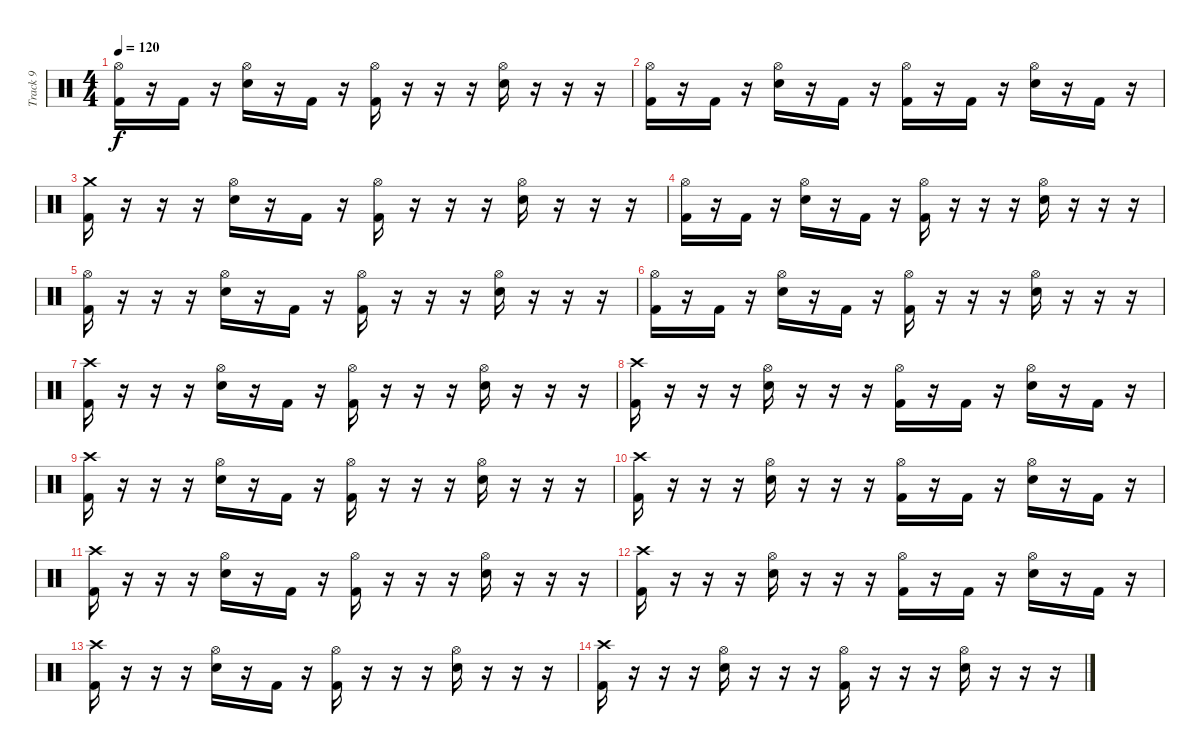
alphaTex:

\track ("Track 9" "Track 9") {instrument percussion}
\staff {score}
\articulation defaults
\ts (4 4)
\tempo 120
\clef neutral
\ks c
("Hi-Hat (open)" "Kick (hit) 2").16{dy f} r.16 "Kick (hit) 2".16 r.16 ("Hi-Hat (open)" "Electric Snare (hit)").16 r.16 "Kick (hit) 2".16 r.16 ("Hi-Hat (open)" "Kick (hit) 2").16 r.16 r.16 r.16 ("Hi-Hat (open)" "Electric Snare (hit)").16 r.16 r.16 r.16 |
("Hi-Hat (open)" "Kick (hit) 2").16 r.16 "Kick (hit) 2".16 r.16 ("Hi-Hat (open)" "Electric Snare (hit)").16 r.16 "Kick (hit) 2".16 r.16 ("Hi-Hat (open)" "Kick (hit) 2").16 r.16 "Kick (hit) 2".16 r.16 ("Hi-Hat (open)" "Electric Snare (hit)").16 r.16 "Kick (hit) 2".16 r.16 |
("Crash medium (hit)" "Kick (hit) 2").16 r.16 r.16 r.16 ("Hi-Hat (open)" "Electric Snare (hit)").16 r.16 "Kick (hit) 2".16 r.16 ("Hi-Hat (open)" "Kick (hit) 2").16 r.16 r.16 r.16 ("Hi-Hat (open)" "Electric Snare (hit)").16 r.16 r.16 r.16 |
("Hi-Hat (open)" "Kick (hit) 2").16 r.16 "Kick (hit) 2".16 r.16 ("Hi-Hat (open)" "Electric Snare (hit)").16 r.16 "Kick (hit) 2".16 r.16 ("Hi-Hat (open)" "Kick (hit) 2").16 r.16 r.16 r.16 ("Hi-Hat (open)" "Electric Snare (hit)").16 r.16 r.16 r.16 |
("Hi-Hat (open)" "Kick (hit) 2").16 r.16 r.16 r.16 ("Hi-Hat (open)" "Electric Snare (hit)").16 r.16 "Kick (hit) 2".16 r.16 ("Hi-Hat (open)" "Kick (hit) 2").16 r.16 r.16 r.16 ("Hi-Hat (open)" "Electric Snare (hit)").16 r.16 r.16 r.16 |
("Hi-Hat (open)" "Kick (hit) 2").16 r.16 "Kick (hit) 2".16 r.16 ("Hi-Hat (open)" "Electric Snare (hit)").16 r.16 "Kick (hit) 2".16 r.16 ("Hi-Hat (open)" "Kick (hit) 2").16 r.16 r.16 r.16 ("Hi-Hat (open)" "Electric Snare (hit)").16 r.16 r.16 r.16 |
("Crash high (hit)" "Kick (hit) 2").16 r.16 r.16 r.16 ("Hi-Hat (open)" "Electric Snare (hit)").16 r.16 "Kick (hit) 2".16 r.16 ("Hi-Hat (open)" "Kick (hit) 2").16 r.16 r.16 r.16 ("Hi-Hat (open)" "Electric Snare (hit)").16 r.16 r.16 r.16 |
("Crash high (hit)" "Kick (hit) 2").16 r.16 r.16 r.16 ("Hi-Hat (open)" "Electric Snare (hit)").16 r.16 r.16 r.16 ("Hi-Hat (open)" "Kick (hit) 2").16 r.16 "Kick (hit) 2".16 r.16 ("Hi-Hat (open)" "Electric Snare (hit)").16 r.16 "Kick (hit) 2".16 r.16 |
("Crash high (hit)" "Kick (hit) 2").16 r.16 r.16 r.16 ("Hi-Hat (open)" "Electric Snare (hit)").16 r.16 "Kick (hit) 2".16 r.16 ("Hi-Hat (open)" "Kick (hit) 2").16 r.16 r.16 r.16 ("Hi-Hat (open)" "Electric Snare (hit)").16 r.16 r.16 r.16 |
("Crash high (hit)" "Kick (hit) 2").16 r.16 r.16 r.16 ("Hi-Hat (open)" "Electric Snare (hit)").16 r.16 r.16 r.16 ("Hi-Hat (open)" "Kick (hit) 2").16 r.16 "Kick (hit) 2".16 r.16 ("Hi-Hat (open)" "Electric Snare (hit)").16 r.16 "Kick (hit) 2".16 r.16 |
("Crash high (hit)" "Kick (hit) 2").16 r.16 r.16 r.16 ("Hi-Hat (open)" "Electric Snare (hit)").16 r.16 "Kick (hit) 2".16 r.16 ("Hi-Hat (open)" "Kick (hit) 2").16 r.16 r.16 r.16 ("Hi-Hat (open)" "Electric Snare (hit)").16 r.16 r.16 r.16 |
("Crash high (hit)" "Kick (hit) 2").16 r.16 r.16 r.16 ("Hi-Hat (open)" "Electric Snare (hit)").16 r.16 r.16 r.16 ("Hi-Hat (open)" "Kick (hit) 2").16 r.16 "Kick (hit) 2".16 r.16 ("Hi-Hat (open)" "Electric Snare (hit)").16 r.16 "Kick (hit) 2".16 r.16 |
("Crash high (hit)" "Kick (hit) 2").16 r.16 r.16 r.16 ("Hi-Hat (open)" "Electric Snare (hit)").16 r.16 "Kick (hit) 2".16 r.16 ("Hi-Hat (open)" "Kick (hit) 2").16 r.16 r.16 r.16 ("Hi-Hat (open)" "Electric Snare (hit)").16 r.16 r.16 r.16 |
("Crash high (hit)" "Kick (hit) 2").16 r.16 r.16 r.16 ("Hi-Hat (open)" "Electric Snare (hit)").16 r.16 r.16 r.16 ("Hi-Hat (open)" "Kick (hit) 2").16 r.16 r.16 r.16 ("Hi-Hat (open)" "Electric Snare (hit)").16 r.16 r.16 r.16
